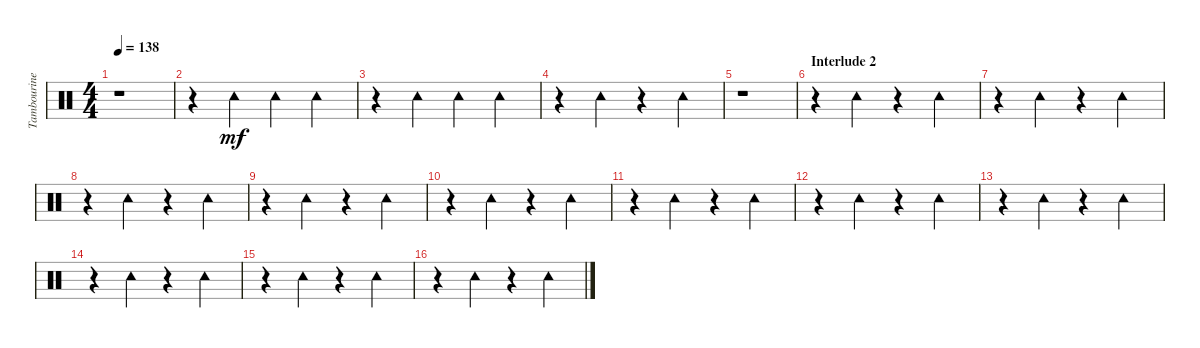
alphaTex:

\track ("Tambourine" "Tambourine") {instrument percussion}
\staff {score}
\articulation defaults
\ts (4 4)
\tempo 138
\clef neutral
\ks c
r.1{dy mf} |
r.4 "Tambourine (hit)".4 "Tambourine (hit)".4 "Tambourine (hit)".4 |
r.4 "Tambourine (hit)".4 "Tambourine (hit)".4 "Tambourine (hit)".4 |
r.4 "Tambourine (hit)".4 r.4 "Tambourine (hit)".4 |
r.1 |
\section ("" "Interlude 2")
r.4 "Tambourine (hit)".4 r.4 "Tambourine (hit)".4 |
r.4 "Tambourine (hit)".4 r.4 "Tambourine (hit)".4 |
r.4 "Tambourine (hit)".4 r.4 "Tambourine (hit)".4 |
r.4 "Tambourine (hit)".4 r.4 "Tambourine (hit)".4 |
r.4 "Tambourine (hit)".4 r.4 "Tambourine (hit)".4 |
r.4 "Tambourine (hit)".4 r.4 "Tambourine (hit)".4 |
r.4 "Tambourine (hit)".4 r.4 "Tambourine (hit)".4 |
r.4 "Tambourine (hit)".4 r.4 "Tambourine (hit)".4 |
r.4 "Tambourine (hit)".4 r.4 "Tambourine (hit)".4 |
r.4 "Tambourine (hit)".4 r.4 "Tambourine (hit)".4 |
r.4 "Tambourine (hit)".4 r.4 "Tambourine (hit)".4
